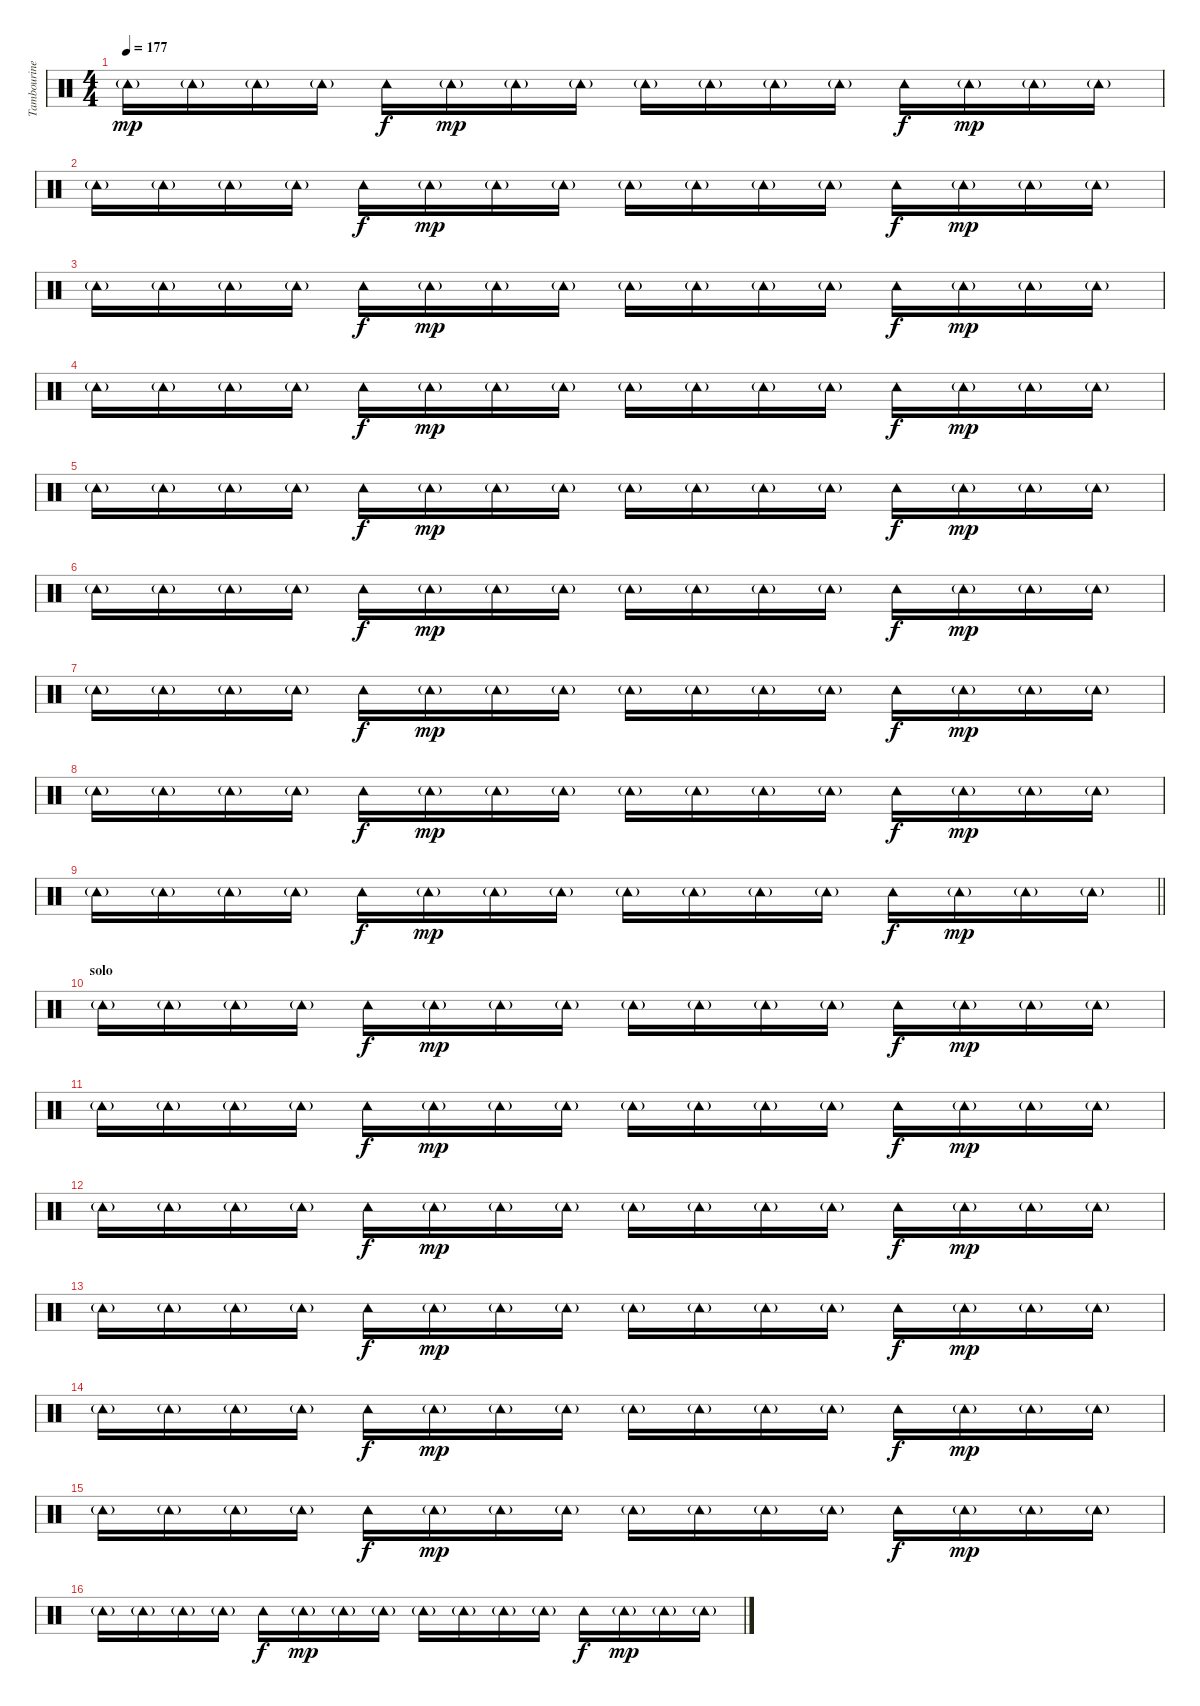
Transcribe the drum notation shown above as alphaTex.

\track ("Tambourine" "Tambourine") {instrument percussion}
\staff {score}
\articulation defaults
\ts (4 4)
\tempo 177
\clef neutral
\ks c "Tambourine (hit)"{g}.16{dy mp} "Tambourine (hit)"{g}.16 "Tambourine (hit)"{g}.16 "Tambourine (hit)"{g}.16 "Tambourine (hit)".16{dy f} "Tambourine (hit)"{g}.16{dy mp} "Tambourine (hit)"{g}.16 "Tambourine (hit)"{g}.16 "Tambourine (hit)"{g}.16 "Tambourine (hit)"{g}.16 "Tambourine (hit)"{g}.16 "Tambourine (hit)"{g}.16 "Tambourine (hit)".16{dy f} "Tambourine (hit)"{g}.16{dy mp} "Tambourine (hit)"{g}.16 "Tambourine (hit)"{g}.16
|
"Tambourine (hit)"{g}.16 "Tambourine (hit)"{g}.16 "Tambourine (hit)"{g}.16 "Tambourine (hit)"{g}.16 "Tambourine (hit)".16{dy f} "Tambourine (hit)"{g}.16{dy mp} "Tambourine (hit)"{g}.16 "Tambourine (hit)"{g}.16 "Tambourine (hit)"{g}.16 "Tambourine (hit)"{g}.16 "Tambourine (hit)"{g}.16 "Tambourine (hit)"{g}.16 "Tambourine (hit)".16{dy f} "Tambourine (hit)"{g}.16{dy mp} "Tambourine (hit)"{g}.16 "Tambourine (hit)"{g}.16 |
"Tambourine (hit)"{g}.16 "Tambourine (hit)"{g}.16 "Tambourine (hit)"{g}.16 "Tambourine (hit)"{g}.16 "Tambourine (hit)".16{dy f} "Tambourine (hit)"{g}.16{dy mp} "Tambourine (hit)"{g}.16 "Tambourine (hit)"{g}.16 "Tambourine (hit)"{g}.16 "Tambourine (hit)"{g}.16 "Tambourine (hit)"{g}.16 "Tambourine (hit)"{g}.16 "Tambourine (hit)".16{dy f} "Tambourine (hit)"{g}.16{dy mp} "Tambourine (hit)"{g}.16 "Tambourine (hit)"{g}.16 |
"Tambourine (hit)"{g}.16 "Tambourine (hit)"{g}.16 "Tambourine (hit)"{g}.16 "Tambourine (hit)"{g}.16 "Tambourine (hit)".16{dy f} "Tambourine (hit)"{g}.16{dy mp} "Tambourine (hit)"{g}.16 "Tambourine (hit)"{g}.16 "Tambourine (hit)"{g}.16 "Tambourine (hit)"{g}.16 "Tambourine (hit)"{g}.16 "Tambourine (hit)"{g}.16 "Tambourine (hit)".16{dy f} "Tambourine (hit)"{g}.16{dy mp} "Tambourine (hit)"{g}.16 "Tambourine (hit)"{g}.16 |
"Tambourine (hit)"{g}.16 "Tambourine (hit)"{g}.16 "Tambourine (hit)"{g}.16 "Tambourine (hit)"{g}.16 "Tambourine (hit)".16{dy f} "Tambourine (hit)"{g}.16{dy mp} "Tambourine (hit)"{g}.16 "Tambourine (hit)"{g}.16 "Tambourine (hit)"{g}.16 "Tambourine (hit)"{g}.16 "Tambourine (hit)"{g}.16 "Tambourine (hit)"{g}.16 "Tambourine (hit)".16{dy f} "Tambourine (hit)"{g}.16{dy mp} "Tambourine (hit)"{g}.16 "Tambourine (hit)"{g}.16 |
"Tambourine (hit)"{g}.16 "Tambourine (hit)"{g}.16 "Tambourine (hit)"{g}.16 "Tambourine (hit)"{g}.16 "Tambourine (hit)".16{dy f} "Tambourine (hit)"{g}.16{dy mp} "Tambourine (hit)"{g}.16 "Tambourine (hit)"{g}.16 "Tambourine (hit)"{g}.16 "Tambourine (hit)"{g}.16 "Tambourine (hit)"{g}.16 "Tambourine (hit)"{g}.16 "Tambourine (hit)".16{dy f} "Tambourine (hit)"{g}.16{dy mp} "Tambourine (hit)"{g}.16 "Tambourine (hit)"{g}.16 |
"Tambourine (hit)"{g}.16 "Tambourine (hit)"{g}.16 "Tambourine (hit)"{g}.16 "Tambourine (hit)"{g}.16 "Tambourine (hit)".16{dy f} "Tambourine (hit)"{g}.16{dy mp} "Tambourine (hit)"{g}.16 "Tambourine (hit)"{g}.16 "Tambourine (hit)"{g}.16 "Tambourine (hit)"{g}.16 "Tambourine (hit)"{g}.16 "Tambourine (hit)"{g}.16 "Tambourine (hit)".16{dy f} "Tambourine (hit)"{g}.16{dy mp} "Tambourine (hit)"{g}.16 "Tambourine (hit)"{g}.16 |
"Tambourine (hit)"{g}.16 "Tambourine (hit)"{g}.16 "Tambourine (hit)"{g}.16 "Tambourine (hit)"{g}.16 "Tambourine (hit)".16{dy f} "Tambourine (hit)"{g}.16{dy mp} "Tambourine (hit)"{g}.16 "Tambourine (hit)"{g}.16 "Tambourine (hit)"{g}.16 "Tambourine (hit)"{g}.16 "Tambourine (hit)"{g}.16 "Tambourine (hit)"{g}.16 "Tambourine (hit)".16{dy f} "Tambourine (hit)"{g}.16{dy mp} "Tambourine (hit)"{g}.16 "Tambourine (hit)"{g}.16 |
\barLineRight lightlight "Tambourine (hit)"{g}.16 "Tambourine (hit)"{g}.16 "Tambourine (hit)"{g}.16 "Tambourine (hit)"{g}.16 "Tambourine (hit)".16{dy f} "Tambourine (hit)"{g}.16{dy mp} "Tambourine (hit)"{g}.16 "Tambourine (hit)"{g}.16 "Tambourine (hit)"{g}.16 "Tambourine (hit)"{g}.16 "Tambourine (hit)"{g}.16 "Tambourine (hit)"{g}.16 "Tambourine (hit)".16{dy f} "Tambourine (hit)"{g}.16{dy mp} "Tambourine (hit)"{g}.16 "Tambourine (hit)"{g}.16
|
\section ("" "solo")
"Tambourine (hit)"{g}.16 "Tambourine (hit)"{g}.16 "Tambourine (hit)"{g}.16 "Tambourine (hit)"{g}.16 "Tambourine (hit)".16{dy f} "Tambourine (hit)"{g}.16{dy mp} "Tambourine (hit)"{g}.16 "Tambourine (hit)"{g}.16 "Tambourine (hit)"{g}.16 "Tambourine (hit)"{g}.16 "Tambourine (hit)"{g}.16 "Tambourine (hit)"{g}.16 "Tambourine (hit)".16{dy f} "Tambourine (hit)"{g}.16{dy mp} "Tambourine (hit)"{g}.16 "Tambourine (hit)"{g}.16 |
"Tambourine (hit)"{g}.16 "Tambourine (hit)"{g}.16 "Tambourine (hit)"{g}.16 "Tambourine (hit)"{g}.16 "Tambourine (hit)".16{dy f} "Tambourine (hit)"{g}.16{dy mp} "Tambourine (hit)"{g}.16 "Tambourine (hit)"{g}.16 "Tambourine (hit)"{g}.16 "Tambourine (hit)"{g}.16 "Tambourine (hit)"{g}.16 "Tambourine (hit)"{g}.16 "Tambourine (hit)".16{dy f} "Tambourine (hit)"{g}.16{dy mp} "Tambourine (hit)"{g}.16 "Tambourine (hit)"{g}.16 |
"Tambourine (hit)"{g}.16 "Tambourine (hit)"{g}.16 "Tambourine (hit)"{g}.16 "Tambourine (hit)"{g}.16 "Tambourine (hit)".16{dy f} "Tambourine (hit)"{g}.16{dy mp} "Tambourine (hit)"{g}.16 "Tambourine (hit)"{g}.16 "Tambourine (hit)"{g}.16 "Tambourine (hit)"{g}.16 "Tambourine (hit)"{g}.16 "Tambourine (hit)"{g}.16 "Tambourine (hit)".16{dy f} "Tambourine (hit)"{g}.16{dy mp} "Tambourine (hit)"{g}.16 "Tambourine (hit)"{g}.16 |
"Tambourine (hit)"{g}.16 "Tambourine (hit)"{g}.16 "Tambourine (hit)"{g}.16 "Tambourine (hit)"{g}.16 "Tambourine (hit)".16{dy f} "Tambourine (hit)"{g}.16{dy mp} "Tambourine (hit)"{g}.16 "Tambourine (hit)"{g}.16 "Tambourine (hit)"{g}.16 "Tambourine (hit)"{g}.16 "Tambourine (hit)"{g}.16 "Tambourine (hit)"{g}.16 "Tambourine (hit)".16{dy f} "Tambourine (hit)"{g}.16{dy mp} "Tambourine (hit)"{g}.16 "Tambourine (hit)"{g}.16 |
"Tambourine (hit)"{g}.16 "Tambourine (hit)"{g}.16 "Tambourine (hit)"{g}.16 "Tambourine (hit)"{g}.16 "Tambourine (hit)".16{dy f} "Tambourine (hit)"{g}.16{dy mp} "Tambourine (hit)"{g}.16 "Tambourine (hit)"{g}.16 "Tambourine (hit)"{g}.16 "Tambourine (hit)"{g}.16 "Tambourine (hit)"{g}.16 "Tambourine (hit)"{g}.16 "Tambourine (hit)".16{dy f} "Tambourine (hit)"{g}.16{dy mp} "Tambourine (hit)"{g}.16 "Tambourine (hit)"{g}.16 |
"Tambourine (hit)"{g}.16 "Tambourine (hit)"{g}.16 "Tambourine (hit)"{g}.16 "Tambourine (hit)"{g}.16 "Tambourine (hit)".16{dy f} "Tambourine (hit)"{g}.16{dy mp} "Tambourine (hit)"{g}.16 "Tambourine (hit)"{g}.16 "Tambourine (hit)"{g}.16 "Tambourine (hit)"{g}.16 "Tambourine (hit)"{g}.16 "Tambourine (hit)"{g}.16 "Tambourine (hit)".16{dy f} "Tambourine (hit)"{g}.16{dy mp} "Tambourine (hit)"{g}.16 "Tambourine (hit)"{g}.16 |
"Tambourine (hit)"{g}.16 "Tambourine (hit)"{g}.16 "Tambourine (hit)"{g}.16 "Tambourine (hit)"{g}.16 "Tambourine (hit)".16{dy f} "Tambourine (hit)"{g}.16{dy mp} "Tambourine (hit)"{g}.16 "Tambourine (hit)"{g}.16 "Tambourine (hit)"{g}.16 "Tambourine (hit)"{g}.16 "Tambourine (hit)"{g}.16 "Tambourine (hit)"{g}.16 "Tambourine (hit)".16{dy f} "Tambourine (hit)"{g}.16{dy mp} "Tambourine (hit)"{g}.16 "Tambourine (hit)"{g}.16
